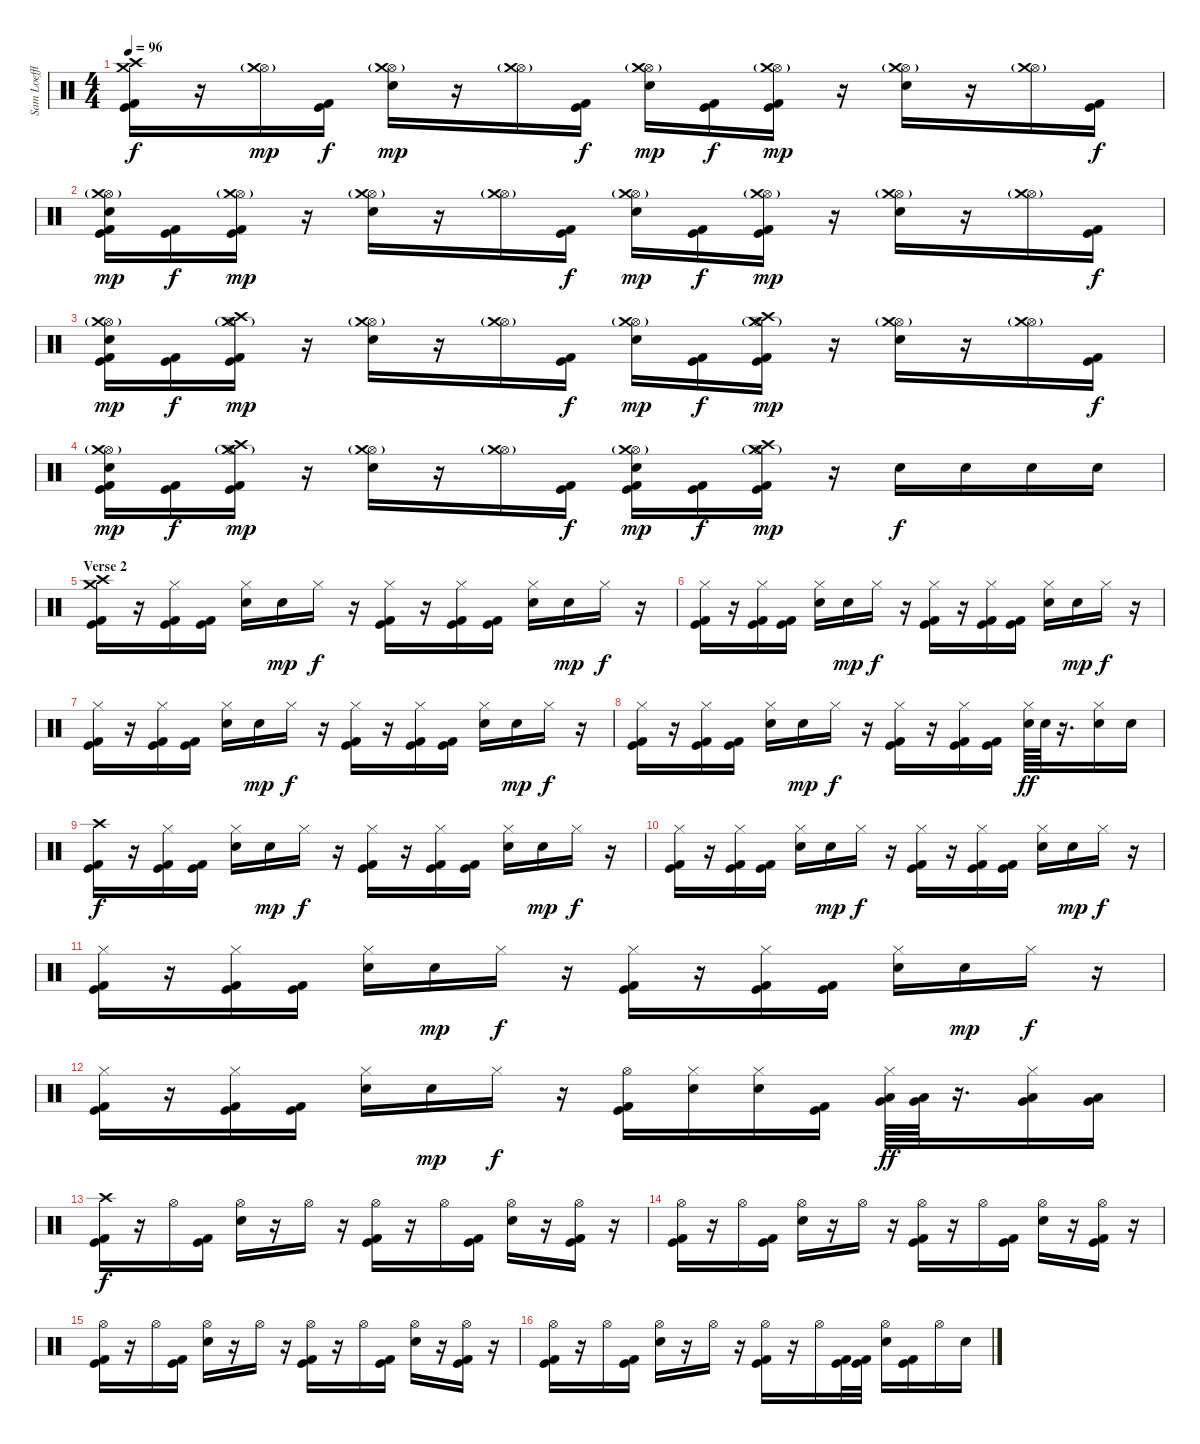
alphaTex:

\track ("Sam Loeffler - Drums" "Sam Loeffl") {instrument percussion}
\staff {score}
\articulation defaults
\ts (4 4)
\tempo 96
\clef neutral
\ks c
("Crash high (hit)" "Crash medium (hit)" "Kick (hit)" "Kick (hit) 2").16{dy f} r.16 ("Hi-Hat (open)" "Crash medium (hit)"{g}).16{dy mp} ("Kick (hit)" "Kick (hit) 2").16{dy f} ("Hi-Hat (open)" "Crash medium (hit)"{g} "Electric Snare (hit)").16{dy mp} r.16 ("Hi-Hat (open)" "Crash medium (hit)"{g}).16 ("Kick (hit)" "Kick (hit) 2").16{dy f} ("Hi-Hat (open)" "Crash medium (hit)"{g} "Electric Snare (hit)").16{dy mp} ("Kick (hit)" "Kick (hit) 2").16{dy f} ("Hi-Hat (open)" "Crash medium (hit)"{g} "Kick (hit)" "Kick (hit) 2").16{dy mp} r.16 ("Hi-Hat (open)" "Crash medium (hit)"{g} "Electric Snare (hit)").16 r.16 ("Hi-Hat (open)" "Crash medium (hit)"{g}).16 ("Kick (hit)" "Kick (hit) 2").16{dy f} |
("Hi-Hat (open)" "Crash medium (hit)"{g} "Electric Snare (hit)" "Kick (hit)" "Kick (hit) 2").16{dy mp} ("Kick (hit)" "Kick (hit) 2").16{dy f} ("Hi-Hat (open)" "Crash medium (hit)"{g} "Kick (hit)" "Kick (hit) 2").16{dy mp} r.16 ("Hi-Hat (open)" "Crash medium (hit)"{g} "Electric Snare (hit)").16 r.16 ("Hi-Hat (open)" "Crash medium (hit)"{g}).16 ("Kick (hit)" "Kick (hit) 2").16{dy f} ("Hi-Hat (open)" "Crash medium (hit)"{g} "Electric Snare (hit)").16{dy mp} ("Kick (hit)" "Kick (hit) 2").16{dy f} ("Hi-Hat (open)" "Crash medium (hit)"{g} "Kick (hit)" "Kick (hit) 2").16{dy mp} r.16 ("Hi-Hat (open)" "Crash medium (hit)"{g} "Electric Snare (hit)").16 r.16 ("Hi-Hat (open)" "Crash medium (hit)"{g}).16 ("Kick (hit)" "Kick (hit) 2").16{dy f} |
("Hi-Hat (open)" "Crash medium (hit)"{g} "Electric Snare (hit)" "Kick (hit)" "Kick (hit) 2").16{dy mp} ("Kick (hit)" "Kick (hit) 2").16{dy f} ("Hi-Hat (open)" "Crash medium (hit)"{g} "Crash high (hit)" "Kick (hit)" "Kick (hit) 2").16{dy mp} r.16 ("Hi-Hat (open)" "Crash medium (hit)"{g} "Electric Snare (hit)").16 r.16 ("Hi-Hat (open)" "Crash medium (hit)"{g}).16 ("Kick (hit)" "Kick (hit) 2").16{dy f} ("Hi-Hat (open)" "Crash medium (hit)"{g} "Electric Snare (hit)").16{dy mp} ("Kick (hit)" "Kick (hit) 2").16{dy f} ("Hi-Hat (open)" "Crash medium (hit)"{g} "Crash high (hit)" "Kick (hit)" "Kick (hit) 2").16{dy mp} r.16 ("Hi-Hat (open)" "Crash medium (hit)"{g} "Electric Snare (hit)").16 r.16 ("Hi-Hat (open)" "Crash medium (hit)"{g}).16 ("Kick (hit)" "Kick (hit) 2").16{dy f} |
("Hi-Hat (open)" "Crash medium (hit)"{g} "Electric Snare (hit)" "Kick (hit)" "Kick (hit) 2").16{dy mp} ("Kick (hit)" "Kick (hit) 2").16{dy f} ("Hi-Hat (open)" "Crash medium (hit)"{g} "Crash high (hit)" "Kick (hit)" "Kick (hit) 2").16{dy mp} r.16 ("Hi-Hat (open)" "Crash medium (hit)"{g} "Electric Snare (hit)").16 r.16 ("Hi-Hat (open)" "Crash medium (hit)"{g}).16 ("Kick (hit)" "Kick (hit) 2").16{dy f} ("Hi-Hat (open)" "Crash medium (hit)"{g} "Electric Snare (hit)" "Kick (hit)" "Kick (hit) 2").16{dy mp} ("Kick (hit)" "Kick (hit) 2").16{dy f} ("Hi-Hat (open)" "Crash medium (hit)"{g} "Crash high (hit)" "Kick (hit)" "Kick (hit) 2").16{dy mp} r.16 "Electric Snare (hit)".16{dy f} "Electric Snare (hit)".16 "Electric Snare (hit)".16 "Electric Snare (hit)".16 |
\section ("" "Verse 2")
("Crash high (hit)" "Crash medium (hit)" "Kick (hit)" "Kick (hit) 2").16 r.16 ("Hi-Hat (closed)" "Kick (hit)" "Kick (hit) 2").16 ("Kick (hit)" "Kick (hit) 2").16 ("Hi-Hat (closed)" "Electric Snare (hit)").16 "Electric Snare (hit)".16{dy mp} "Hi-Hat (closed)".16{dy f} r.16 ("Hi-Hat (closed)" "Kick (hit)" "Kick (hit) 2").16 r.16 ("Hi-Hat (closed)" "Kick (hit)" "Kick (hit) 2").16 ("Kick (hit)" "Kick (hit) 2").16 ("Hi-Hat (closed)" "Electric Snare (hit)").16 "Electric Snare (hit)".16{dy mp} "Hi-Hat (closed)".16{dy f} r.16 |
("Hi-Hat (closed)" "Kick (hit)" "Kick (hit) 2").16 r.16 ("Hi-Hat (closed)" "Kick (hit)" "Kick (hit) 2").16 ("Kick (hit)" "Kick (hit) 2").16 ("Hi-Hat (closed)" "Electric Snare (hit)").16 "Electric Snare (hit)".16{dy mp} "Hi-Hat (closed)".16{dy f} r.16 ("Hi-Hat (closed)" "Kick (hit)" "Kick (hit) 2").16 r.16 ("Hi-Hat (closed)" "Kick (hit)" "Kick (hit) 2").16 ("Kick (hit)" "Kick (hit) 2").16 ("Hi-Hat (closed)" "Electric Snare (hit)").16 "Electric Snare (hit)".16{dy mp} "Hi-Hat (closed)".16{dy f} r.16 |
("Hi-Hat (closed)" "Kick (hit)" "Kick (hit) 2").16 r.16 ("Hi-Hat (closed)" "Kick (hit)" "Kick (hit) 2").16 ("Kick (hit)" "Kick (hit) 2").16 ("Hi-Hat (closed)" "Electric Snare (hit)").16 "Electric Snare (hit)".16{dy mp} "Hi-Hat (closed)".16{dy f} r.16 ("Hi-Hat (closed)" "Kick (hit)" "Kick (hit) 2").16 r.16 ("Hi-Hat (closed)" "Kick (hit)" "Kick (hit) 2").16 ("Kick (hit)" "Kick (hit) 2").16 ("Hi-Hat (closed)" "Electric Snare (hit)").16 "Electric Snare (hit)".16{dy mp} "Hi-Hat (closed)".16{dy f} r.16 |
("Hi-Hat (closed)" "Kick (hit)" "Kick (hit) 2").16 r.16 ("Hi-Hat (closed)" "Kick (hit)" "Kick (hit) 2").16 ("Kick (hit)" "Kick (hit) 2").16 ("Hi-Hat (closed)" "Electric Snare (hit)").16 "Electric Snare (hit)".16{dy mp} "Hi-Hat (closed)".16{dy f} r.16 ("Hi-Hat (closed)" "Kick (hit)" "Kick (hit) 2").16 r.16 ("Hi-Hat (closed)" "Kick (hit)" "Kick (hit) 2").16 ("Kick (hit)" "Kick (hit) 2").16 ("Hi-Hat (closed)" "Electric Snare (hit)").64{dy ff} "Electric Snare (hit)".64 r.16{d} ("Hi-Hat (closed)" "Electric Snare (hit)").16 "Electric Snare (hit)".16 |
("Crash high (hit)" "Kick (hit)" "Kick (hit) 2").16{dy f} r.16 ("Hi-Hat (closed)" "Kick (hit)" "Kick (hit) 2").16 ("Kick (hit)" "Kick (hit) 2").16 ("Hi-Hat (closed)" "Electric Snare (hit)").16 "Electric Snare (hit)".16{dy mp} "Hi-Hat (closed)".16{dy f} r.16 ("Hi-Hat (closed)" "Kick (hit)" "Kick (hit) 2").16 r.16 ("Hi-Hat (closed)" "Kick (hit)" "Kick (hit) 2").16 ("Kick (hit)" "Kick (hit) 2").16 ("Hi-Hat (closed)" "Electric Snare (hit)").16 "Electric Snare (hit)".16{dy mp} "Hi-Hat (closed)".16{dy f} r.16 |
("Hi-Hat (closed)" "Kick (hit)" "Kick (hit) 2").16 r.16 ("Hi-Hat (closed)" "Kick (hit)" "Kick (hit) 2").16 ("Kick (hit)" "Kick (hit) 2").16 ("Hi-Hat (closed)" "Electric Snare (hit)").16 "Electric Snare (hit)".16{dy mp} "Hi-Hat (closed)".16{dy f} r.16 ("Hi-Hat (closed)" "Kick (hit)" "Kick (hit) 2").16 r.16 ("Hi-Hat (closed)" "Kick (hit)" "Kick (hit) 2").16 ("Kick (hit)" "Kick (hit) 2").16 ("Hi-Hat (closed)" "Electric Snare (hit)").16 "Electric Snare (hit)".16{dy mp} "Hi-Hat (closed)".16{dy f} r.16 |
("Hi-Hat (closed)" "Kick (hit)" "Kick (hit) 2").16 r.16 ("Hi-Hat (closed)" "Kick (hit)" "Kick (hit) 2").16 ("Kick (hit)" "Kick (hit) 2").16 ("Hi-Hat (closed)" "Electric Snare (hit)").16 "Electric Snare (hit)".16{dy mp} "Hi-Hat (closed)".16{dy f} r.16 ("Hi-Hat (closed)" "Kick (hit)" "Kick (hit) 2").16 r.16 ("Hi-Hat (closed)" "Kick (hit)" "Kick (hit) 2").16 ("Kick (hit)" "Kick (hit) 2").16 ("Hi-Hat (closed)" "Electric Snare (hit)").16 "Electric Snare (hit)".16{dy mp} "Hi-Hat (closed)".16{dy f} r.16 |
("Hi-Hat (closed)" "Kick (hit)" "Kick (hit) 2").16 r.16 ("Hi-Hat (closed)" "Kick (hit)" "Kick (hit) 2").16 ("Kick (hit)" "Kick (hit) 2").16 ("Hi-Hat (closed)" "Electric Snare (hit)").16 "Electric Snare (hit)".16{dy mp} "Hi-Hat (closed)".16{dy f} r.16 ("Hi-Hat (open)" "Kick (hit)" "Kick (hit) 2").16 ("Hi-Hat (closed)" "Electric Snare (hit)").16 ("Hi-Hat (closed)" "Electric Snare (hit)").16 ("Kick (hit)" "Kick (hit) 2").16 ("Hi-Hat (closed)" "Low Tom (hit)" "Very Low Tom (hit)").64{dy ff} ("Low Tom (hit)" "Very Low Tom (hit)").64 r.16{d} ("Hi-Hat (closed)" "Very Low Tom (hit)" "Low Floor Tom (hit)").16 ("Very Low Tom (hit)" "Low Floor Tom (hit)").16 |
("Crash high (hit)" "Kick (hit)" "Kick (hit) 2").16{dy f} r.16 "Hi-Hat (open)".16 ("Kick (hit)" "Kick (hit) 2").16 ("Hi-Hat (open)" "Electric Snare (hit)").16 r.16 "Hi-Hat (open)".16 r.16 ("Hi-Hat (open)" "Kick (hit)" "Kick (hit) 2").16 r.16 "Hi-Hat (open)".16 ("Kick (hit)" "Kick (hit) 2").16 ("Hi-Hat (open)" "Electric Snare (hit)").16 r.16 ("Hi-Hat (open)" "Kick (hit)" "Kick (hit) 2").16 r.16 |
("Hi-Hat (open)" "Kick (hit)" "Kick (hit) 2").16 r.16 "Hi-Hat (open)".16 ("Kick (hit)" "Kick (hit) 2").16 ("Hi-Hat (open)" "Electric Snare (hit)").16 r.16 "Hi-Hat (open)".16 r.16 ("Hi-Hat (open)" "Kick (hit)" "Kick (hit) 2").16 r.16 "Hi-Hat (open)".16 ("Kick (hit)" "Kick (hit) 2").16 ("Hi-Hat (open)" "Electric Snare (hit)").16 r.16 ("Hi-Hat (open)" "Kick (hit)" "Kick (hit) 2").16 r.16 |
("Hi-Hat (open)" "Kick (hit)" "Kick (hit) 2").16 r.16 "Hi-Hat (open)".16 ("Kick (hit)" "Kick (hit) 2").16 ("Hi-Hat (open)" "Electric Snare (hit)").16 r.16 "Hi-Hat (open)".16 r.16 ("Hi-Hat (open)" "Kick (hit)" "Kick (hit) 2").16 r.16 "Hi-Hat (open)".16 ("Kick (hit)" "Kick (hit) 2").16 ("Hi-Hat (open)" "Electric Snare (hit)").16 r.16 ("Hi-Hat (open)" "Kick (hit)" "Kick (hit) 2").16 r.16 |
("Hi-Hat (open)" "Kick (hit)" "Kick (hit) 2").16 r.16 "Hi-Hat (open)".16 ("Kick (hit)" "Kick (hit) 2").16 ("Hi-Hat (open)" "Electric Snare (hit)").16 r.16 "Hi-Hat (open)".16 r.16 ("Hi-Hat (open)" "Kick (hit)" "Kick (hit) 2").16 r.16 "Hi-Hat (open)".16 ("Kick (hit)" "Kick (hit) 2").32 ("Kick (hit)" "Kick (hit) 2").32 ("Hi-Hat (open)" "Electric Snare (hit)").16 ("Kick (hit)" "Kick (hit) 2").16 "Hi-Hat (open)".16 "Electric Snare (hit)".16
